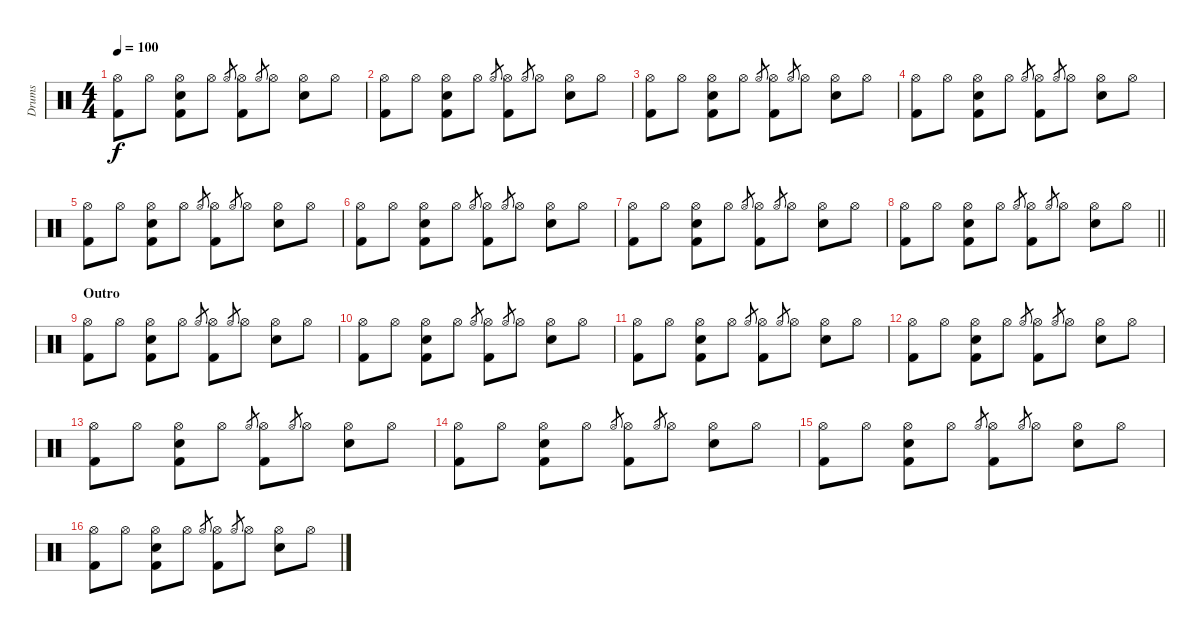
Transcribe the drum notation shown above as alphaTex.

\track ("Drums" "Drums") {instrument percussion}
\staff {score}
\articulation defaults
\ts (4 4)
\tempo 100
\clef neutral
\ks c
("Hi-Hat (open)" "Kick (hit) 2").8{dy f} "Hi-Hat (open)".8 ("Electric Snare (hit)" "Hi-Hat (open)" "Kick (hit) 2").8 "Hi-Hat (open)".8 "Hi-Hat (open)".8{gr} ("Hi-Hat (open)" "Kick (hit) 2").8 "Hi-Hat (open)".8{gr} "Hi-Hat (open)".8 ("Electric Snare (hit)" "Hi-Hat (open)").8 "Hi-Hat (open)".8 |
("Hi-Hat (open)" "Kick (hit) 2").8 "Hi-Hat (open)".8 ("Electric Snare (hit)" "Hi-Hat (open)" "Kick (hit) 2").8 "Hi-Hat (open)".8 "Hi-Hat (open)".8{gr} ("Hi-Hat (open)" "Kick (hit) 2").8 "Hi-Hat (open)".8{gr} "Hi-Hat (open)".8 ("Electric Snare (hit)" "Hi-Hat (open)").8 "Hi-Hat (open)".8 |
("Hi-Hat (open)" "Kick (hit) 2").8 "Hi-Hat (open)".8 ("Electric Snare (hit)" "Hi-Hat (open)" "Kick (hit) 2").8 "Hi-Hat (open)".8 "Hi-Hat (open)".8{gr} ("Hi-Hat (open)" "Kick (hit) 2").8 "Hi-Hat (open)".8{gr} "Hi-Hat (open)".8 ("Electric Snare (hit)" "Hi-Hat (open)").8 "Hi-Hat (open)".8 |
("Hi-Hat (open)" "Kick (hit) 2").8 "Hi-Hat (open)".8 ("Electric Snare (hit)" "Hi-Hat (open)" "Kick (hit) 2").8 "Hi-Hat (open)".8 "Hi-Hat (open)".8{gr} ("Hi-Hat (open)" "Kick (hit) 2").8 "Hi-Hat (open)".8{gr} "Hi-Hat (open)".8 ("Electric Snare (hit)" "Hi-Hat (open)").8 "Hi-Hat (open)".8 |
("Hi-Hat (open)" "Kick (hit) 2").8 "Hi-Hat (open)".8 ("Electric Snare (hit)" "Hi-Hat (open)" "Kick (hit) 2").8 "Hi-Hat (open)".8 "Hi-Hat (open)".8{gr} ("Hi-Hat (open)" "Kick (hit) 2").8 "Hi-Hat (open)".8{gr} "Hi-Hat (open)".8 ("Electric Snare (hit)" "Hi-Hat (open)").8 "Hi-Hat (open)".8 |
("Hi-Hat (open)" "Kick (hit) 2").8 "Hi-Hat (open)".8 ("Electric Snare (hit)" "Hi-Hat (open)" "Kick (hit) 2").8 "Hi-Hat (open)".8 "Hi-Hat (open)".8{gr} ("Hi-Hat (open)" "Kick (hit) 2").8 "Hi-Hat (open)".8{gr} "Hi-Hat (open)".8 ("Electric Snare (hit)" "Hi-Hat (open)").8 "Hi-Hat (open)".8 |
("Hi-Hat (open)" "Kick (hit) 2").8 "Hi-Hat (open)".8 ("Electric Snare (hit)" "Hi-Hat (open)" "Kick (hit) 2").8 "Hi-Hat (open)".8 "Hi-Hat (open)".8{gr} ("Hi-Hat (open)" "Kick (hit) 2").8 "Hi-Hat (open)".8{gr} "Hi-Hat (open)".8 ("Electric Snare (hit)" "Hi-Hat (open)").8 "Hi-Hat (open)".8 |
\barLineRight lightlight
("Hi-Hat (open)" "Kick (hit) 2").8 "Hi-Hat (open)".8 ("Electric Snare (hit)" "Hi-Hat (open)" "Kick (hit) 2").8 "Hi-Hat (open)".8 "Hi-Hat (open)".8{gr} ("Hi-Hat (open)" "Kick (hit) 2").8 "Hi-Hat (open)".8{gr} "Hi-Hat (open)".8 ("Electric Snare (hit)" "Hi-Hat (open)").8 "Hi-Hat (open)".8 |
\section ("" "Outro")
("Hi-Hat (open)" "Kick (hit) 2").8 "Hi-Hat (open)".8 ("Electric Snare (hit)" "Hi-Hat (open)" "Kick (hit) 2").8 "Hi-Hat (open)".8 "Hi-Hat (open)".8{gr} ("Hi-Hat (open)" "Kick (hit) 2").8 "Hi-Hat (open)".8{gr} "Hi-Hat (open)".8 ("Electric Snare (hit)" "Hi-Hat (open)").8 "Hi-Hat (open)".8 |
("Hi-Hat (open)" "Kick (hit) 2").8 "Hi-Hat (open)".8 ("Electric Snare (hit)" "Hi-Hat (open)" "Kick (hit) 2").8 "Hi-Hat (open)".8 "Hi-Hat (open)".8{gr} ("Hi-Hat (open)" "Kick (hit) 2").8 "Hi-Hat (open)".8{gr} "Hi-Hat (open)".8 ("Electric Snare (hit)" "Hi-Hat (open)").8 "Hi-Hat (open)".8 |
("Hi-Hat (open)" "Kick (hit) 2").8 "Hi-Hat (open)".8 ("Electric Snare (hit)" "Hi-Hat (open)" "Kick (hit) 2").8 "Hi-Hat (open)".8 "Hi-Hat (open)".8{gr} ("Hi-Hat (open)" "Kick (hit) 2").8 "Hi-Hat (open)".8{gr} "Hi-Hat (open)".8 ("Electric Snare (hit)" "Hi-Hat (open)").8 "Hi-Hat (open)".8 |
("Hi-Hat (open)" "Kick (hit) 2").8 "Hi-Hat (open)".8 ("Electric Snare (hit)" "Hi-Hat (open)" "Kick (hit) 2").8 "Hi-Hat (open)".8 "Hi-Hat (open)".8{gr} ("Hi-Hat (open)" "Kick (hit) 2").8 "Hi-Hat (open)".8{gr} "Hi-Hat (open)".8 ("Electric Snare (hit)" "Hi-Hat (open)").8 "Hi-Hat (open)".8 |
("Hi-Hat (open)" "Kick (hit) 2").8 "Hi-Hat (open)".8 ("Electric Snare (hit)" "Hi-Hat (open)" "Kick (hit) 2").8 "Hi-Hat (open)".8 "Hi-Hat (open)".8{gr} ("Hi-Hat (open)" "Kick (hit) 2").8 "Hi-Hat (open)".8{gr} "Hi-Hat (open)".8 ("Electric Snare (hit)" "Hi-Hat (open)").8 "Hi-Hat (open)".8 |
("Hi-Hat (open)" "Kick (hit) 2").8 "Hi-Hat (open)".8 ("Electric Snare (hit)" "Hi-Hat (open)" "Kick (hit) 2").8 "Hi-Hat (open)".8 "Hi-Hat (open)".8{gr} ("Hi-Hat (open)" "Kick (hit) 2").8 "Hi-Hat (open)".8{gr} "Hi-Hat (open)".8 ("Electric Snare (hit)" "Hi-Hat (open)").8 "Hi-Hat (open)".8 |
("Hi-Hat (open)" "Kick (hit) 2").8 "Hi-Hat (open)".8 ("Electric Snare (hit)" "Hi-Hat (open)" "Kick (hit) 2").8 "Hi-Hat (open)".8 "Hi-Hat (open)".8{gr} ("Hi-Hat (open)" "Kick (hit) 2").8 "Hi-Hat (open)".8{gr} "Hi-Hat (open)".8 ("Electric Snare (hit)" "Hi-Hat (open)").8 "Hi-Hat (open)".8 |
("Hi-Hat (open)" "Kick (hit) 2").8 "Hi-Hat (open)".8 ("Electric Snare (hit)" "Hi-Hat (open)" "Kick (hit) 2").8 "Hi-Hat (open)".8 "Hi-Hat (open)".8{gr} ("Hi-Hat (open)" "Kick (hit) 2").8 "Hi-Hat (open)".8{gr} "Hi-Hat (open)".8 ("Electric Snare (hit)" "Hi-Hat (open)").8 "Hi-Hat (open)".8
